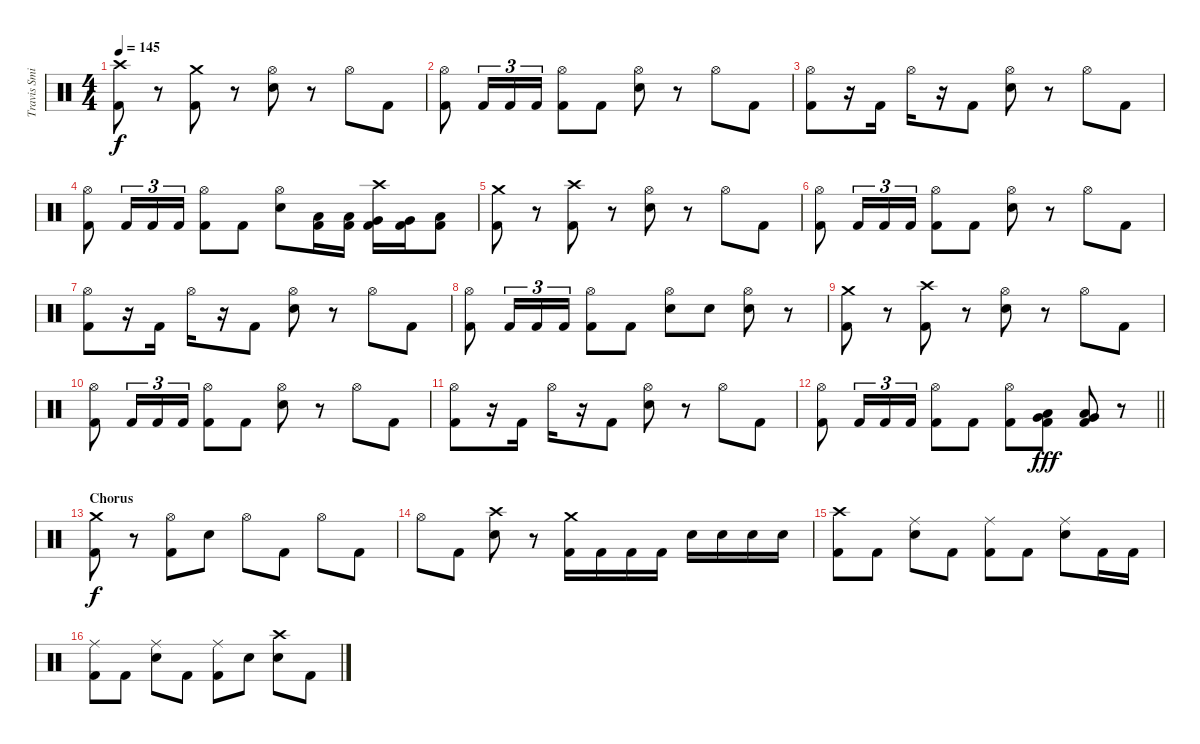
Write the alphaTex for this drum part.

\track ("Travis Smith" "Travis Smi") {instrument percussion}
\staff {score}
\articulation defaults
\ts (4 4)
\tempo 145
\clef neutral
\ks c
("Crash high (hit)" "Kick (hit) 2").8{dy f} r.8 ("Crash medium (hit)" "Kick (hit) 2").8 r.8 ("Hi-Hat (open)" "Electric Snare (hit)").8 r.8 "Hi-Hat (open)".8 "Kick (hit) 2".8 |
("Hi-Hat (open)" "Kick (hit) 2").8 "Kick (hit) 2".16{tu (3 2)} "Kick (hit) 2".16{tu (3 2)} "Kick (hit) 2".16{tu (3 2)} ("Hi-Hat (open)" "Kick (hit) 2").8 "Kick (hit) 2".8 ("Hi-Hat (open)" "Electric Snare (hit)").8 r.8 "Hi-Hat (open)".8 "Kick (hit) 2".8 |
("Hi-Hat (open)" "Kick (hit) 2").8 r.16 "Kick (hit) 2".16 "Hi-Hat (open)".16 r.16 "Kick (hit) 2".8 ("Hi-Hat (open)" "Electric Snare (hit)").8 r.8 "Hi-Hat (open)".8 "Kick (hit) 2".8 |
("Hi-Hat (open)" "Kick (hit) 2").8 "Kick (hit) 2".16{tu (3 2)} "Kick (hit) 2".16{tu (3 2)} "Kick (hit) 2".16{tu (3 2)} ("Hi-Hat (open)" "Kick (hit) 2").8 "Kick (hit) 2".8 ("Hi-Hat (open)" "Electric Snare (hit)").8 ("Low Tom (hit)" "Kick (hit) 2").16 ("Low Tom (hit)" "Kick (hit) 2").16 ("Crash high (hit)" "Very Low Tom (hit)" "Kick (hit) 2").16 ("Very Low Tom (hit)" "Kick (hit) 2").16 ("Low Floor Tom (hit)" "Kick (hit) 2").8 |
("Crash medium (hit)" "Kick (hit) 2").8 r.8 ("Crash high (hit)" "Kick (hit) 2").8 r.8 ("Hi-Hat (open)" "Electric Snare (hit)").8 r.8 "Hi-Hat (open)".8 "Kick (hit) 2".8 |
("Hi-Hat (open)" "Kick (hit) 2").8 "Kick (hit) 2".16{tu (3 2)} "Kick (hit) 2".16{tu (3 2)} "Kick (hit) 2".16{tu (3 2)} ("Hi-Hat (open)" "Kick (hit) 2").8 "Kick (hit) 2".8 ("Hi-Hat (open)" "Electric Snare (hit)").8 r.8 "Hi-Hat (open)".8 "Kick (hit) 2".8 |
("Hi-Hat (open)" "Kick (hit) 2").8 r.16 "Kick (hit) 2".16 "Hi-Hat (open)".16 r.16 "Kick (hit) 2".8 ("Hi-Hat (open)" "Electric Snare (hit)").8 r.8 "Hi-Hat (open)".8 "Kick (hit) 2".8 |
("Hi-Hat (open)" "Kick (hit) 2").8 "Kick (hit) 2".16{tu (3 2)} "Kick (hit) 2".16{tu (3 2)} "Kick (hit) 2".16{tu (3 2)} ("Hi-Hat (open)" "Kick (hit) 2").8 "Kick (hit) 2".8 ("Hi-Hat (open)" "Electric Snare (hit)").8 "Electric Snare (hit)".8 ("Hi-Hat (open)" "Electric Snare (hit)").8 r.8 |
("Crash medium (hit)" "Kick (hit) 2").8 r.8 ("Crash high (hit)" "Kick (hit) 2").8 r.8 ("Hi-Hat (open)" "Electric Snare (hit)").8 r.8 "Hi-Hat (open)".8 "Kick (hit) 2".8 |
("Hi-Hat (open)" "Kick (hit) 2").8 "Kick (hit) 2".16{tu (3 2)} "Kick (hit) 2".16{tu (3 2)} "Kick (hit) 2".16{tu (3 2)} ("Hi-Hat (open)" "Kick (hit) 2").8 "Kick (hit) 2".8 ("Hi-Hat (open)" "Electric Snare (hit)").8 r.8 "Hi-Hat (open)".8 "Kick (hit) 2".8 |
("Hi-Hat (open)" "Kick (hit) 2").8 r.16 "Kick (hit) 2".16 "Hi-Hat (open)".16 r.16 "Kick (hit) 2".8 ("Hi-Hat (open)" "Electric Snare (hit)").8 r.8 "Hi-Hat (open)".8 "Kick (hit) 2".8 |
\barLineRight lightlight
("Hi-Hat (open)" "Kick (hit) 2").8 "Kick (hit) 2".16{tu (3 2)} "Kick (hit) 2".16{tu (3 2)} "Kick (hit) 2".16{tu (3 2)} ("Hi-Hat (open)" "Kick (hit) 2").8 "Kick (hit) 2".8 ("Hi-Hat (open)" "Kick (hit) 2").8 ("Very Low Tom (hit)" "Low Floor Tom (hit)" "Kick (hit) 2").8{dy fff} ("Very Low Tom (hit)" "Low Floor Tom (hit)" "Kick (hit) 2").8 r.8 |
\section ("" "Chorus")
("Crash medium (hit)" "Kick (hit) 2").8{dy f} r.8 ("Hi-Hat (open)" "Kick (hit) 2").8 "Electric Snare (hit)".8 "Hi-Hat (open)".8 "Kick (hit) 2".8 "Hi-Hat (open)".8 "Kick (hit) 2".8 |
"Hi-Hat (open)".8 "Kick (hit) 2".8 ("Crash high (hit)" "Electric Snare (hit)").8 r.8 ("Crash medium (hit)" "Kick (hit) 2").16 "Kick (hit) 2".16 "Kick (hit) 2".16 "Kick (hit) 2".16 "Electric Snare (hit)".16 "Electric Snare (hit)".16 "Electric Snare (hit)".16 "Electric Snare (hit)".16 |
("Crash high (hit)" "Kick (hit) 2").8 "Kick (hit) 2".8 ("Ride (middle)" "Electric Snare (hit)").8 "Kick (hit) 2".8 ("Ride (middle)" "Kick (hit) 2").8 "Kick (hit) 2".8 ("Ride (middle)" "Electric Snare (hit)").8 "Kick (hit) 2".16 "Kick (hit) 2".16 |
("Ride (middle)" "Kick (hit) 2").8 "Kick (hit) 2".8 ("Ride (middle)" "Electric Snare (hit)").8 "Kick (hit) 2".8 ("Ride (middle)" "Kick (hit) 2").8 "Electric Snare (hit)".8 ("Crash high (hit)" "Electric Snare (hit)").8 "Kick (hit) 2".8
